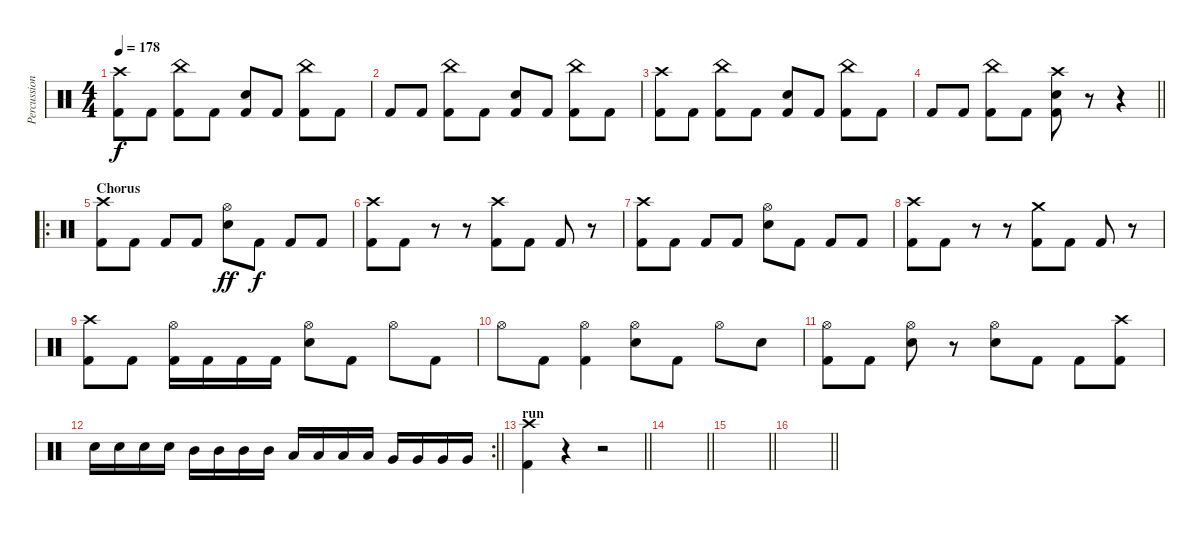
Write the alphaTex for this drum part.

\track ("Percussion" "Percussion") {instrument percussion}
\staff {score}
\articulation defaults
\ts (4 4)
\tempo 178
\clef neutral
\ks c
("Crash high (hit)" "Kick (hit) 2").8{dy f} "Kick (hit) 2".8 ("China (hit)" "Kick (hit) 2").8 "Kick (hit) 2".8 ("Electric Snare (hit)" "Kick (hit) 2").8 "Kick (hit) 2".8 ("China (hit)" "Kick (hit) 2").8 "Kick (hit) 2".8 |
"Kick (hit) 2".8 "Kick (hit) 2".8 ("China (hit)" "Kick (hit) 2").8 "Kick (hit) 2".8 ("Electric Snare (hit)" "Kick (hit) 2").8 "Kick (hit) 2".8 ("China (hit)" "Kick (hit) 2").8 "Kick (hit) 2".8 |
("Crash high (hit)" "Kick (hit) 2").8 "Kick (hit) 2".8 ("China (hit)" "Kick (hit) 2").8 "Kick (hit) 2".8 ("Electric Snare (hit)" "Kick (hit) 2").8 "Kick (hit) 2".8 ("China (hit)" "Kick (hit) 2").8 "Kick (hit) 2".8 |
\barLineRight lightlight "Kick (hit) 2".8 "Kick (hit) 2".8
("China (hit)" "Kick (hit) 2").8 "Kick (hit) 2".8 ("Crash high (hit)" "Electric Snare (hit)" "Kick (hit) 2").8 r.8 r.4 |
\ro
\section ("" "Chorus")
("Crash high (hit)" "Kick (hit) 2").8 "Kick (hit) 2".8 "Kick (hit) 2".8 "Kick (hit) 2".8 ("Hi-Hat (open)" "Electric Snare (hit)").8{dy ff} "Kick (hit) 2".8{dy f} "Kick (hit) 2".8 "Kick (hit) 2".8 |
("Crash high (hit)" "Kick (hit) 2").8 "Kick (hit) 2".8 r.8 r.8 ("Crash high (hit)" "Kick (hit) 2").8 "Kick (hit) 2".8 "Kick (hit) 2".8 r.8 |
("Crash high (hit)" "Kick (hit) 2").8 "Kick (hit) 2".8 "Kick (hit) 2".8 "Kick (hit) 2".8 ("Hi-Hat (open)" "Electric Snare (hit)").8 "Kick (hit) 2".8 "Kick (hit) 2".8 "Kick (hit) 2".8 |
("Crash high (hit)" "Kick (hit) 2").8 "Kick (hit) 2".8 r.8 r.8 ("Crash medium (hit)" "Kick (hit) 2").8 "Kick (hit) 2".8 "Kick (hit) 2".8 r.8 |
("Crash high (hit)" "Kick (hit) 2").8 "Kick (hit) 2".8 ("Hi-Hat (open)" "Kick (hit) 2").16 "Kick (hit) 2".16 "Kick (hit) 2".16 "Kick (hit) 2".16 ("Hi-Hat (open)" "Electric Snare (hit)").8 "Kick (hit) 2".8 "Hi-Hat (open)".8 "Kick (hit) 2".8 |
"Hi-Hat (open)".8 "Kick (hit) 2".8 ("Hi-Hat (open)" "Kick (hit) 2").4 ("Hi-Hat (open)" "Electric Snare (hit)").8 "Kick (hit) 2".8 "Hi-Hat (open)".8 "Electric Snare (hit)".8 |
("Hi-Hat (open)" "Kick (hit) 2").8 "Kick (hit) 2".8 ("Hi-Hat (open)" "Electric Snare (hit)").8 r.8 ("Hi-Hat (open)" "Electric Snare (hit)").8 "Kick (hit) 2".8 "Kick (hit) 2".8 ("Crash high (hit)" "Kick (hit) 2").8 |
\rc 2
\barLineRight lightlight "Electric Snare (hit)".16 "Electric Snare (hit)".16 "Electric Snare (hit)".16 "Electric Snare (hit)".16 "Mid Tom (hit)".16 "Mid Tom (hit)".16 "Mid Tom (hit)".16 "Mid Tom (hit)".16 "Low Tom (hit)".16 "Low Tom (hit)".16 "Low Tom (hit)".16 "Low Tom (hit)".16 "Very Low Tom (hit)".16 "Very Low Tom (hit)".16 "Very Low Tom (hit)".16 "Very Low Tom (hit)".16
|
\section ("" "run")
\barLineRight lightlight
("Crash high (hit)" "Kick (hit) 2").4 r.4 r.2 |
\barLineRight lightlight
|
\barLineRight lightlight
|
\barLineRight lightlight
